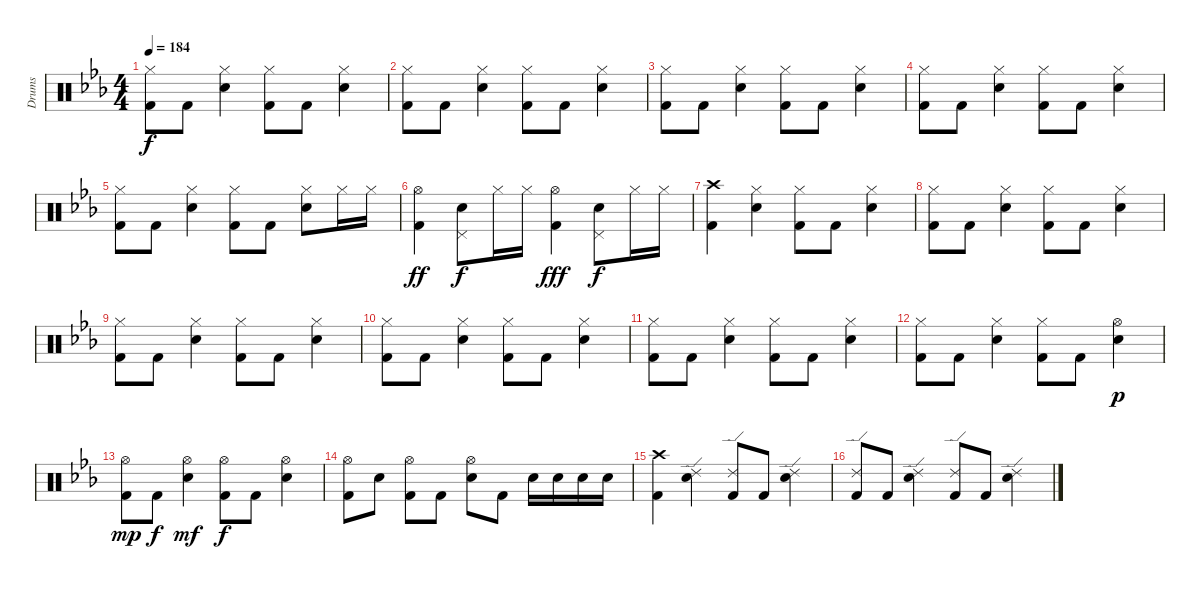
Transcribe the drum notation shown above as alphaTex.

\track ("Drums" "Drums") {instrument percussion}
\staff {score}
\articulation defaults
\ts (4 4)
\tempo 184
\clef neutral
\ks eb
("Hi-Hat (closed)" "Kick (hit) 2").8{dy f} "Kick (hit) 2".8 ("Hi-Hat (closed)" "Electric Snare (hit)").4 ("Hi-Hat (closed)" "Kick (hit) 2").8 "Kick (hit) 2".8 ("Hi-Hat (closed)" "Electric Snare (hit)").4 |
("Hi-Hat (closed)" "Kick (hit) 2").8 "Kick (hit) 2".8 ("Hi-Hat (closed)" "Electric Snare (hit)").4 ("Hi-Hat (closed)" "Kick (hit) 2").8 "Kick (hit) 2".8 ("Hi-Hat (closed)" "Electric Snare (hit)").4 |
("Hi-Hat (closed)" "Kick (hit) 2").8 "Kick (hit) 2".8 ("Hi-Hat (closed)" "Electric Snare (hit)").4 ("Hi-Hat (closed)" "Kick (hit) 2").8 "Kick (hit) 2".8 ("Hi-Hat (closed)" "Electric Snare (hit)").4 |
("Hi-Hat (closed)" "Kick (hit) 2").8 "Kick (hit) 2".8 ("Hi-Hat (closed)" "Electric Snare (hit)").4 ("Hi-Hat (closed)" "Kick (hit) 2").8 "Kick (hit) 2".8 ("Hi-Hat (closed)" "Electric Snare (hit)").4 |
("Hi-Hat (closed)" "Kick (hit) 2").8 "Kick (hit) 2".8 ("Hi-Hat (closed)" "Electric Snare (hit)").4 ("Hi-Hat (closed)" "Kick (hit) 2").8 "Kick (hit) 2".8 ("Hi-Hat (closed)" "Electric Snare (hit)").8 "Hi-Hat (closed)".16 "Hi-Hat (closed)".16 |
("Hi-Hat (open)" "Kick (hit) 2").4{dy ff} ("Electric Snare (hit)" "Pedal Hi-Hat (hit)").8{dy f} "Hi-Hat (closed)".16 "Hi-Hat (closed)".16 ("Hi-Hat (open)" "Kick (hit) 2").4{dy fff} ("Electric Snare (hit)" "Pedal Hi-Hat (hit)").8{dy f} "Hi-Hat (closed)".16 "Hi-Hat (closed)".16 |
("Crash high (hit)" "Kick (hit) 2").4 ("Hi-Hat (closed)" "Electric Snare (hit)").4 ("Hi-Hat (closed)" "Kick (hit) 2").8 "Kick (hit) 2".8 ("Hi-Hat (closed)" "Electric Snare (hit)").4 |
("Hi-Hat (closed)" "Kick (hit) 2").8 "Kick (hit) 2".8 ("Hi-Hat (closed)" "Electric Snare (hit)").4 ("Hi-Hat (closed)" "Kick (hit) 2").8 "Kick (hit) 2".8 ("Hi-Hat (closed)" "Electric Snare (hit)").4 |
("Hi-Hat (closed)" "Kick (hit) 2").8 "Kick (hit) 2".8 ("Hi-Hat (closed)" "Electric Snare (hit)").4 ("Hi-Hat (closed)" "Kick (hit) 2").8 "Kick (hit) 2".8 ("Hi-Hat (closed)" "Electric Snare (hit)").4 |
("Hi-Hat (closed)" "Kick (hit) 2").8 "Kick (hit) 2".8 ("Hi-Hat (closed)" "Electric Snare (hit)").4 ("Hi-Hat (closed)" "Kick (hit) 2").8 "Kick (hit) 2".8 ("Hi-Hat (closed)" "Electric Snare (hit)").4 |
("Hi-Hat (closed)" "Kick (hit) 2").8 "Kick (hit) 2".8 ("Hi-Hat (closed)" "Electric Snare (hit)").4 ("Hi-Hat (closed)" "Kick (hit) 2").8 "Kick (hit) 2".8 ("Hi-Hat (closed)" "Electric Snare (hit)").4 |
("Hi-Hat (closed)" "Kick (hit) 2").8 "Kick (hit) 2".8 ("Hi-Hat (closed)" "Electric Snare (hit)").4 ("Hi-Hat (closed)" "Kick (hit) 2").8 "Kick (hit) 2".8 ("Hi-Hat (open)" "Electric Snare (hit)").4{dy p} |
("Hi-Hat (open)" "Kick (hit) 2").8{dy mp} "Kick (hit) 2".8{dy f} ("Hi-Hat (open)" "Electric Snare (hit)").4{dy mf} ("Hi-Hat (open)" "Kick (hit) 2").8{dy f} "Kick (hit) 2".8 ("Hi-Hat (open)" "Electric Snare (hit)").4 |
("Hi-Hat (open)" "Kick (hit) 2").8 "Electric Snare (hit)".8 ("Hi-Hat (open)" "Kick (hit) 2").8 "Kick (hit) 2".8 ("Hi-Hat (open)" "Electric Snare (hit)").8 "Kick (hit) 2".8 "Electric Snare (hit)".16 "Electric Snare (hit)".16 "Electric Snare (hit)".16 "Electric Snare (hit)".16 |
("Crash high (hit)" "Kick (hit) 2").4 ("Ride (edge) 2" "Electric Snare (hit)").4 ("Ride (edge) 2" "Kick (hit) 2").8 "Kick (hit) 2".8 ("Ride (edge) 2" "Electric Snare (hit)").4 |
("Ride (edge) 2" "Kick (hit) 2").8 "Kick (hit) 2".8 ("Ride (edge) 2" "Electric Snare (hit)").4 ("Ride (edge) 2" "Kick (hit) 2").8 "Kick (hit) 2".8 ("Ride (edge) 2" "Electric Snare (hit)").4
